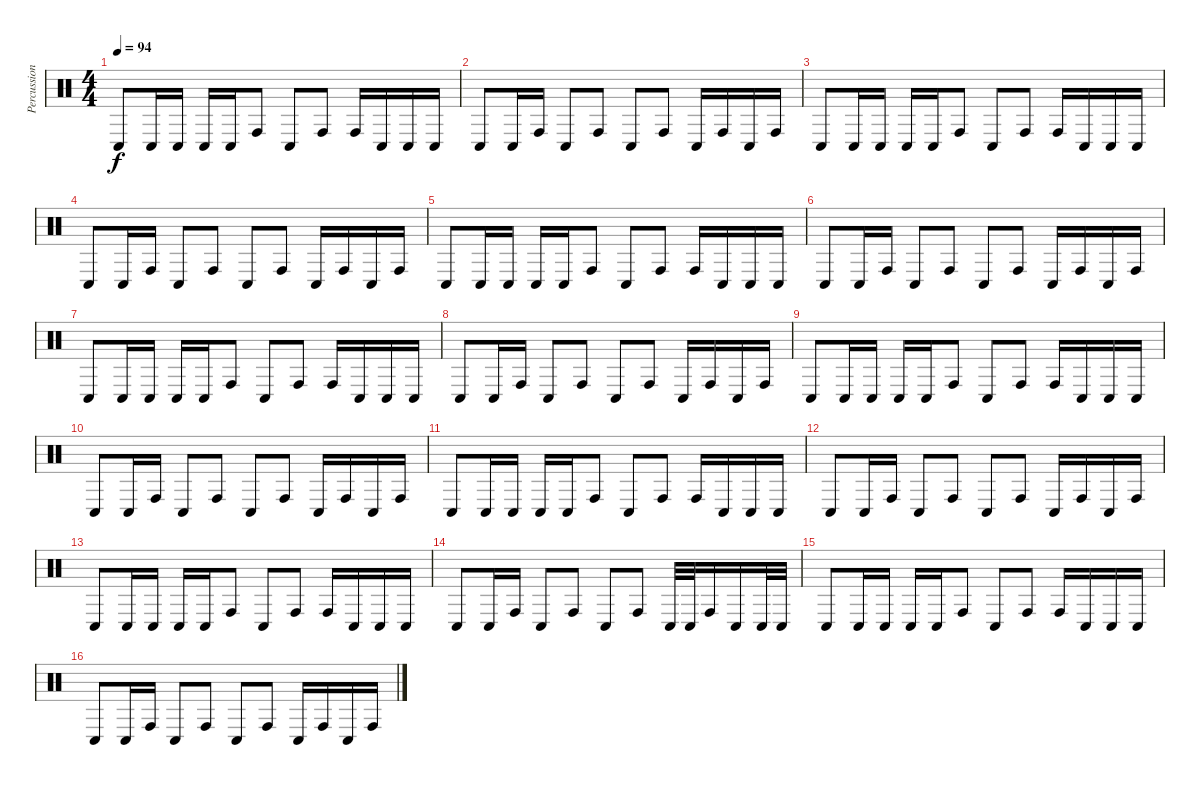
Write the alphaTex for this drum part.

\track ("Percussion" "Percussion") {instrument percussion}
\staff {score}
\articulation defaults
\ts (4 4)
\tempo 94
\clef neutral
\ks c "Conga low (hit)".8{dy f} "Conga low (hit)".16 "Conga low (hit)".16 "Conga low (hit)".16 "Conga low (hit)".16 "Conga high (hit)".8 "Conga low (hit)".8 "Conga high (hit)".8 "Conga high (hit)".16 "Conga low (hit)".16 "Conga low (hit)".16 "Conga low (hit)".16
|
"Conga low (hit)".8 "Conga low (hit)".16 "Conga high (hit)".16 "Conga low (hit)".8 "Conga high (hit)".8 "Conga low (hit)".8 "Conga high (hit)".8 "Conga low (hit)".16 "Conga high (hit)".16 "Conga low (hit)".16 "Conga high (hit)".16 |
"Conga low (hit)".8 "Conga low (hit)".16 "Conga low (hit)".16 "Conga low (hit)".16 "Conga low (hit)".16 "Conga high (hit)".8 "Conga low (hit)".8 "Conga high (hit)".8 "Conga high (hit)".16 "Conga low (hit)".16 "Conga low (hit)".16 "Conga low (hit)".16 |
"Conga low (hit)".8 "Conga low (hit)".16 "Conga high (hit)".16 "Conga low (hit)".8 "Conga high (hit)".8 "Conga low (hit)".8 "Conga high (hit)".8 "Conga low (hit)".16 "Conga high (hit)".16 "Conga low (hit)".16 "Conga high (hit)".16 |
"Conga low (hit)".8 "Conga low (hit)".16 "Conga low (hit)".16 "Conga low (hit)".16 "Conga low (hit)".16 "Conga high (hit)".8 "Conga low (hit)".8 "Conga high (hit)".8 "Conga high (hit)".16 "Conga low (hit)".16 "Conga low (hit)".16 "Conga low (hit)".16 |
"Conga low (hit)".8 "Conga low (hit)".16 "Conga high (hit)".16 "Conga low (hit)".8 "Conga high (hit)".8 "Conga low (hit)".8 "Conga high (hit)".8 "Conga low (hit)".16 "Conga high (hit)".16 "Conga low (hit)".16 "Conga high (hit)".16 |
"Conga low (hit)".8 "Conga low (hit)".16 "Conga low (hit)".16 "Conga low (hit)".16 "Conga low (hit)".16 "Conga high (hit)".8 "Conga low (hit)".8 "Conga high (hit)".8 "Conga high (hit)".16 "Conga low (hit)".16 "Conga low (hit)".16 "Conga low (hit)".16 |
"Conga low (hit)".8 "Conga low (hit)".16 "Conga high (hit)".16 "Conga low (hit)".8 "Conga high (hit)".8 "Conga low (hit)".8 "Conga high (hit)".8 "Conga low (hit)".16 "Conga high (hit)".16 "Conga low (hit)".16 "Conga high (hit)".16 |
"Conga low (hit)".8 "Conga low (hit)".16 "Conga low (hit)".16 "Conga low (hit)".16 "Conga low (hit)".16 "Conga high (hit)".8 "Conga low (hit)".8 "Conga high (hit)".8 "Conga high (hit)".16 "Conga low (hit)".16 "Conga low (hit)".16 "Conga low (hit)".16 |
"Conga low (hit)".8 "Conga low (hit)".16 "Conga high (hit)".16 "Conga low (hit)".8 "Conga high (hit)".8 "Conga low (hit)".8 "Conga high (hit)".8 "Conga low (hit)".16 "Conga high (hit)".16 "Conga low (hit)".16 "Conga high (hit)".16 |
"Conga low (hit)".8 "Conga low (hit)".16 "Conga low (hit)".16 "Conga low (hit)".16 "Conga low (hit)".16 "Conga high (hit)".8 "Conga low (hit)".8 "Conga high (hit)".8 "Conga high (hit)".16 "Conga low (hit)".16 "Conga low (hit)".16 "Conga low (hit)".16 |
"Conga low (hit)".8 "Conga low (hit)".16 "Conga high (hit)".16 "Conga low (hit)".8 "Conga high (hit)".8 "Conga low (hit)".8 "Conga high (hit)".8 "Conga low (hit)".16 "Conga high (hit)".16 "Conga low (hit)".16 "Conga high (hit)".16 |
"Conga low (hit)".8 "Conga low (hit)".16 "Conga low (hit)".16 "Conga low (hit)".16 "Conga low (hit)".16 "Conga high (hit)".8 "Conga low (hit)".8 "Conga high (hit)".8 "Conga high (hit)".16 "Conga low (hit)".16 "Conga low (hit)".16 "Conga low (hit)".16 |
"Conga low (hit)".8 "Conga low (hit)".16 "Conga high (hit)".16 "Conga low (hit)".8 "Conga high (hit)".8 "Conga low (hit)".8 "Conga high (hit)".8 "Conga low (hit)".32 "Conga low (hit)".32 "Conga high (hit)".16 "Conga low (hit)".16 "Conga low (hit)".32 "Conga low (hit)".32 |
"Conga low (hit)".8 "Conga low (hit)".16 "Conga low (hit)".16 "Conga low (hit)".16 "Conga low (hit)".16 "Conga high (hit)".8 "Conga low (hit)".8 "Conga high (hit)".8 "Conga high (hit)".16 "Conga low (hit)".16 "Conga low (hit)".16 "Conga low (hit)".16 |
"Conga low (hit)".8 "Conga low (hit)".16 "Conga high (hit)".16 "Conga low (hit)".8 "Conga high (hit)".8 "Conga low (hit)".8 "Conga high (hit)".8 "Conga low (hit)".16 "Conga high (hit)".16 "Conga low (hit)".16 "Conga high (hit)".16
